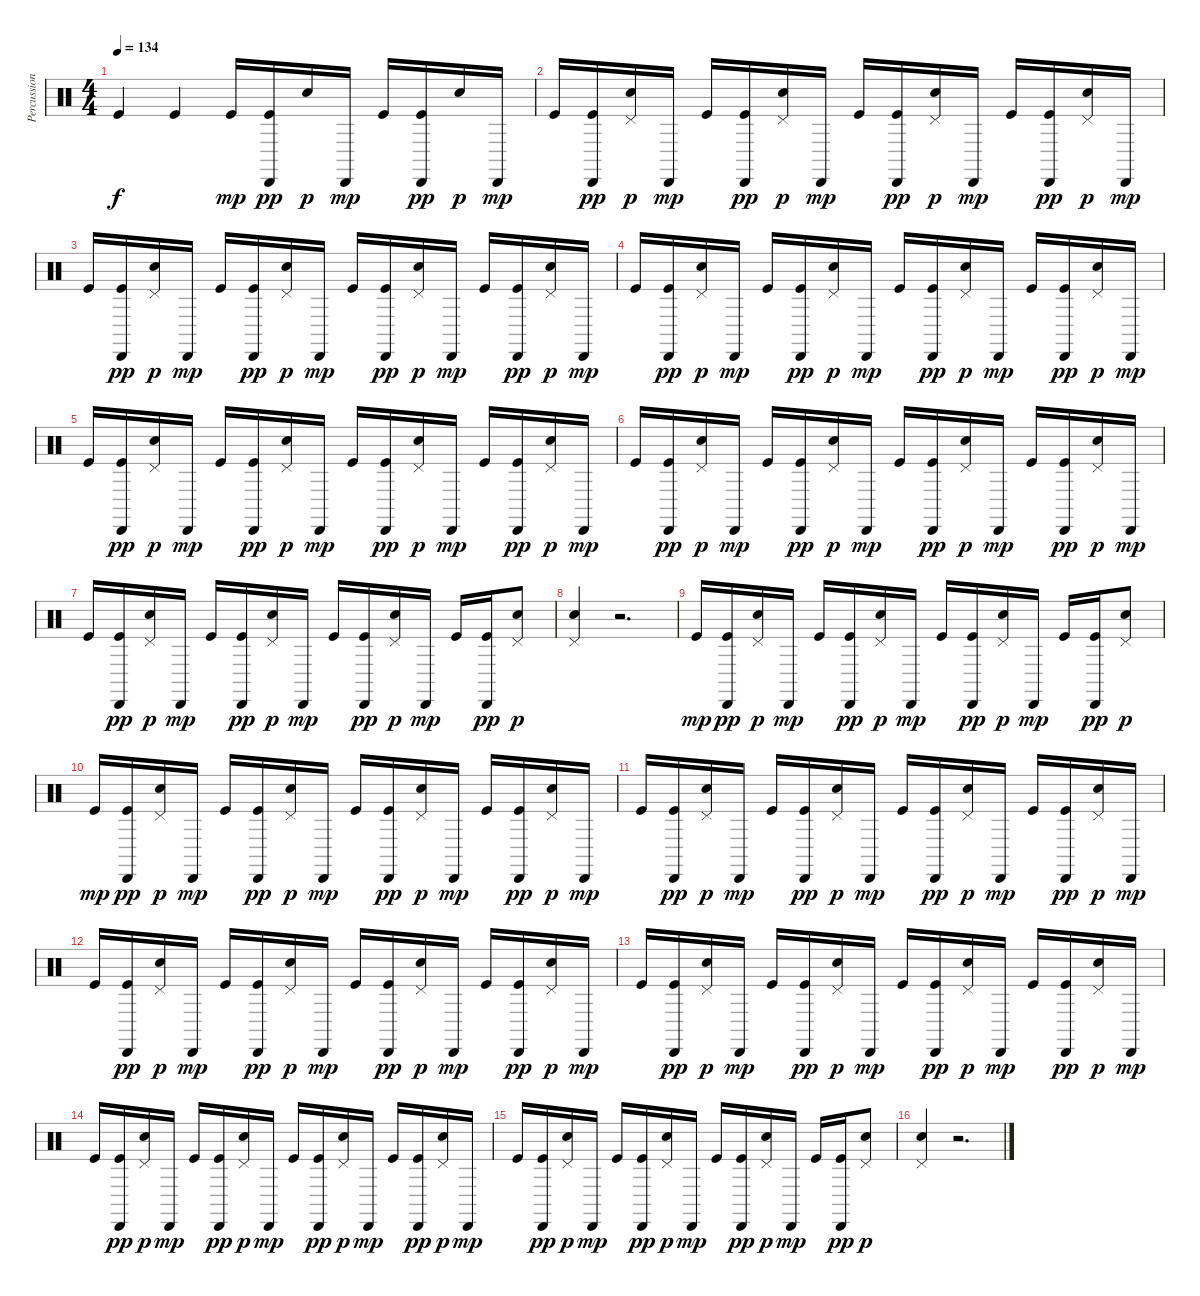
\track ("Percussions" "Percussion") {instrument percussion}
\staff {score}
\articulation defaults
\ts (4 4)
\tempo 134
\clef neutral
\ks c "Kick (hit)".4{dy f} "Kick (hit)".4 "Kick (hit)".16{dy mp}
("Cabasa (hit)" "Kick (hit)").16{dy pp} "Electric Snare (hit)".16{dy p} "Cabasa (hit)".16{dy mp} "Kick (hit)".16 ("Cabasa (hit)" "Kick (hit)").16{dy pp} "Electric Snare (hit)".16{dy p} "Cabasa (hit)".16{dy mp} |
"Kick (hit)".16 ("Cabasa (hit)" "Kick (hit)").16{dy pp} ("Electric Snare (hit)" "Pedal Hi-Hat (hit)").16{dy p} "Cabasa (hit)".16{dy mp} "Kick (hit)".16 ("Cabasa (hit)" "Kick (hit)").16{dy pp} ("Electric Snare (hit)" "Pedal Hi-Hat (hit)").16{dy p} "Cabasa (hit)".16{dy mp} "Kick (hit)".16 ("Cabasa (hit)" "Kick (hit)").16{dy pp} ("Electric Snare (hit)" "Pedal Hi-Hat (hit)").16{dy p} "Cabasa (hit)".16{dy mp} "Kick (hit)".16 ("Cabasa (hit)" "Kick (hit)").16{dy pp} ("Electric Snare (hit)" "Pedal Hi-Hat (hit)").16{dy p} "Cabasa (hit)".16{dy mp} |
"Kick (hit)".16 ("Cabasa (hit)" "Kick (hit)").16{dy pp} ("Electric Snare (hit)" "Pedal Hi-Hat (hit)").16{dy p} "Cabasa (hit)".16{dy mp} "Kick (hit)".16 ("Cabasa (hit)" "Kick (hit)").16{dy pp} ("Electric Snare (hit)" "Pedal Hi-Hat (hit)").16{dy p} "Cabasa (hit)".16{dy mp} "Kick (hit)".16 ("Cabasa (hit)" "Kick (hit)").16{dy pp} ("Electric Snare (hit)" "Pedal Hi-Hat (hit)").16{dy p} "Cabasa (hit)".16{dy mp} "Kick (hit)".16 ("Cabasa (hit)" "Kick (hit)").16{dy pp} ("Electric Snare (hit)" "Pedal Hi-Hat (hit)").16{dy p} "Cabasa (hit)".16{dy mp} |
"Kick (hit)".16 ("Cabasa (hit)" "Kick (hit)").16{dy pp} ("Electric Snare (hit)" "Pedal Hi-Hat (hit)").16{dy p} "Cabasa (hit)".16{dy mp} "Kick (hit)".16 ("Cabasa (hit)" "Kick (hit)").16{dy pp} ("Electric Snare (hit)" "Pedal Hi-Hat (hit)").16{dy p} "Cabasa (hit)".16{dy mp} "Kick (hit)".16 ("Cabasa (hit)" "Kick (hit)").16{dy pp} ("Electric Snare (hit)" "Pedal Hi-Hat (hit)").16{dy p} "Cabasa (hit)".16{dy mp} "Kick (hit)".16 ("Cabasa (hit)" "Kick (hit)").16{dy pp} ("Electric Snare (hit)" "Pedal Hi-Hat (hit)").16{dy p} "Cabasa (hit)".16{dy mp} |
"Kick (hit)".16 ("Cabasa (hit)" "Kick (hit)").16{dy pp} ("Electric Snare (hit)" "Pedal Hi-Hat (hit)").16{dy p} "Cabasa (hit)".16{dy mp} "Kick (hit)".16 ("Cabasa (hit)" "Kick (hit)").16{dy pp} ("Electric Snare (hit)" "Pedal Hi-Hat (hit)").16{dy p} "Cabasa (hit)".16{dy mp} "Kick (hit)".16 ("Cabasa (hit)" "Kick (hit)").16{dy pp} ("Electric Snare (hit)" "Pedal Hi-Hat (hit)").16{dy p} "Cabasa (hit)".16{dy mp} "Kick (hit)".16 ("Cabasa (hit)" "Kick (hit)").16{dy pp} ("Electric Snare (hit)" "Pedal Hi-Hat (hit)").16{dy p} "Cabasa (hit)".16{dy mp} |
"Kick (hit)".16 ("Cabasa (hit)" "Kick (hit)").16{dy pp} ("Electric Snare (hit)" "Pedal Hi-Hat (hit)").16{dy p} "Cabasa (hit)".16{dy mp} "Kick (hit)".16 ("Cabasa (hit)" "Kick (hit)").16{dy pp} ("Electric Snare (hit)" "Pedal Hi-Hat (hit)").16{dy p} "Cabasa (hit)".16{dy mp} "Kick (hit)".16 ("Cabasa (hit)" "Kick (hit)").16{dy pp} ("Electric Snare (hit)" "Pedal Hi-Hat (hit)").16{dy p} "Cabasa (hit)".16{dy mp} "Kick (hit)".16 ("Cabasa (hit)" "Kick (hit)").16{dy pp} ("Electric Snare (hit)" "Pedal Hi-Hat (hit)").16{dy p} "Cabasa (hit)".16{dy mp} |
"Kick (hit)".16 ("Cabasa (hit)" "Kick (hit)").16{dy pp} ("Electric Snare (hit)" "Pedal Hi-Hat (hit)").16{dy p} "Cabasa (hit)".16{dy mp} "Kick (hit)".16 ("Cabasa (hit)" "Kick (hit)").16{dy pp} ("Electric Snare (hit)" "Pedal Hi-Hat (hit)").16{dy p} "Cabasa (hit)".16{dy mp} "Kick (hit)".16 ("Cabasa (hit)" "Kick (hit)").16{dy pp} ("Electric Snare (hit)" "Pedal Hi-Hat (hit)").16{dy p} "Cabasa (hit)".16{dy mp} "Kick (hit)".16 ("Cabasa (hit)" "Kick (hit)").16{dy pp} ("Electric Snare (hit)" "Pedal Hi-Hat (hit)").8{dy p} |
("Electric Snare (hit)" "Pedal Hi-Hat (hit)").4 r.2{d} |
"Kick (hit)".16{dy mp} ("Cabasa (hit)" "Kick (hit)").16{dy pp} ("Electric Snare (hit)" "Pedal Hi-Hat (hit)").16{dy p} "Cabasa (hit)".16{dy mp} "Kick (hit)".16 ("Cabasa (hit)" "Kick (hit)").16{dy pp} ("Electric Snare (hit)" "Pedal Hi-Hat (hit)").16{dy p} "Cabasa (hit)".16{dy mp} "Kick (hit)".16 ("Cabasa (hit)" "Kick (hit)").16{dy pp} ("Electric Snare (hit)" "Pedal Hi-Hat (hit)").16{dy p} "Cabasa (hit)".16{dy mp} "Kick (hit)".16 ("Cabasa (hit)" "Kick (hit)").16{dy pp} ("Electric Snare (hit)" "Pedal Hi-Hat (hit)").8{dy p} |
"Kick (hit)".16{dy mp} ("Cabasa (hit)" "Kick (hit)").16{dy pp} ("Electric Snare (hit)" "Pedal Hi-Hat (hit)").16{dy p} "Cabasa (hit)".16{dy mp} "Kick (hit)".16 ("Cabasa (hit)" "Kick (hit)").16{dy pp} ("Electric Snare (hit)" "Pedal Hi-Hat (hit)").16{dy p} "Cabasa (hit)".16{dy mp} "Kick (hit)".16 ("Cabasa (hit)" "Kick (hit)").16{dy pp} ("Electric Snare (hit)" "Pedal Hi-Hat (hit)").16{dy p} "Cabasa (hit)".16{dy mp} "Kick (hit)".16 ("Cabasa (hit)" "Kick (hit)").16{dy pp} ("Electric Snare (hit)" "Pedal Hi-Hat (hit)").16{dy p} "Cabasa (hit)".16{dy mp} |
"Kick (hit)".16 ("Cabasa (hit)" "Kick (hit)").16{dy pp} ("Electric Snare (hit)" "Pedal Hi-Hat (hit)").16{dy p} "Cabasa (hit)".16{dy mp} "Kick (hit)".16 ("Cabasa (hit)" "Kick (hit)").16{dy pp} ("Electric Snare (hit)" "Pedal Hi-Hat (hit)").16{dy p} "Cabasa (hit)".16{dy mp} "Kick (hit)".16 ("Cabasa (hit)" "Kick (hit)").16{dy pp} ("Electric Snare (hit)" "Pedal Hi-Hat (hit)").16{dy p} "Cabasa (hit)".16{dy mp} "Kick (hit)".16 ("Cabasa (hit)" "Kick (hit)").16{dy pp} ("Electric Snare (hit)" "Pedal Hi-Hat (hit)").16{dy p} "Cabasa (hit)".16{dy mp} |
"Kick (hit)".16 ("Cabasa (hit)" "Kick (hit)").16{dy pp} ("Electric Snare (hit)" "Pedal Hi-Hat (hit)").16{dy p} "Cabasa (hit)".16{dy mp} "Kick (hit)".16 ("Cabasa (hit)" "Kick (hit)").16{dy pp} ("Electric Snare (hit)" "Pedal Hi-Hat (hit)").16{dy p} "Cabasa (hit)".16{dy mp} "Kick (hit)".16 ("Cabasa (hit)" "Kick (hit)").16{dy pp} ("Electric Snare (hit)" "Pedal Hi-Hat (hit)").16{dy p} "Cabasa (hit)".16{dy mp} "Kick (hit)".16 ("Cabasa (hit)" "Kick (hit)").16{dy pp} ("Electric Snare (hit)" "Pedal Hi-Hat (hit)").16{dy p} "Cabasa (hit)".16{dy mp} |
"Kick (hit)".16 ("Cabasa (hit)" "Kick (hit)").16{dy pp} ("Electric Snare (hit)" "Pedal Hi-Hat (hit)").16{dy p} "Cabasa (hit)".16{dy mp} "Kick (hit)".16 ("Cabasa (hit)" "Kick (hit)").16{dy pp} ("Electric Snare (hit)" "Pedal Hi-Hat (hit)").16{dy p} "Cabasa (hit)".16{dy mp} "Kick (hit)".16 ("Cabasa (hit)" "Kick (hit)").16{dy pp} ("Electric Snare (hit)" "Pedal Hi-Hat (hit)").16{dy p} "Cabasa (hit)".16{dy mp} "Kick (hit)".16 ("Cabasa (hit)" "Kick (hit)").16{dy pp} ("Electric Snare (hit)" "Pedal Hi-Hat (hit)").16{dy p} "Cabasa (hit)".16{dy mp} |
"Kick (hit)".16 ("Cabasa (hit)" "Kick (hit)").16{dy pp} ("Electric Snare (hit)" "Pedal Hi-Hat (hit)").16{dy p} "Cabasa (hit)".16{dy mp} "Kick (hit)".16 ("Cabasa (hit)" "Kick (hit)").16{dy pp} ("Electric Snare (hit)" "Pedal Hi-Hat (hit)").16{dy p} "Cabasa (hit)".16{dy mp} "Kick (hit)".16 ("Cabasa (hit)" "Kick (hit)").16{dy pp} ("Electric Snare (hit)" "Pedal Hi-Hat (hit)").16{dy p} "Cabasa (hit)".16{dy mp} "Kick (hit)".16 ("Cabasa (hit)" "Kick (hit)").16{dy pp} ("Electric Snare (hit)" "Pedal Hi-Hat (hit)").16{dy p} "Cabasa (hit)".16{dy mp} |
"Kick (hit)".16 ("Cabasa (hit)" "Kick (hit)").16{dy pp} ("Electric Snare (hit)" "Pedal Hi-Hat (hit)").16{dy p} "Cabasa (hit)".16{dy mp} "Kick (hit)".16 ("Cabasa (hit)" "Kick (hit)").16{dy pp} ("Electric Snare (hit)" "Pedal Hi-Hat (hit)").16{dy p} "Cabasa (hit)".16{dy mp} "Kick (hit)".16 ("Cabasa (hit)" "Kick (hit)").16{dy pp} ("Electric Snare (hit)" "Pedal Hi-Hat (hit)").16{dy p} "Cabasa (hit)".16{dy mp} "Kick (hit)".16 ("Cabasa (hit)" "Kick (hit)").16{dy pp} ("Electric Snare (hit)" "Pedal Hi-Hat (hit)").8{dy p} |
("Electric Snare (hit)" "Pedal Hi-Hat (hit)").4 r.2{d}
